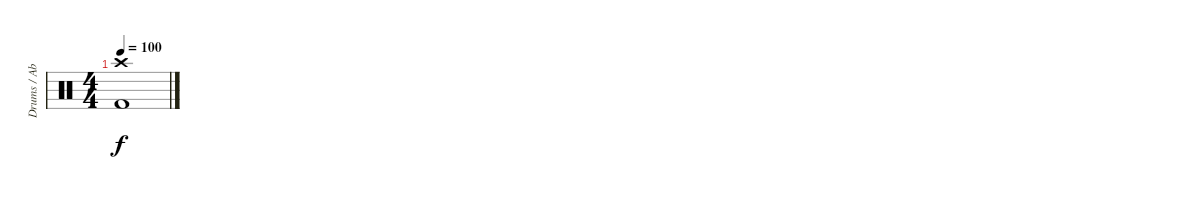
\track ("Drums / Abe Cunningham" "Drums / Ab") {instrument percussion}
\staff {score}
\articulation defaults
\ts (4 4)
\tempo 100
\clef neutral
\ks c
("Crash high (hit)" "Kick (hit) 2").1{dy f}
